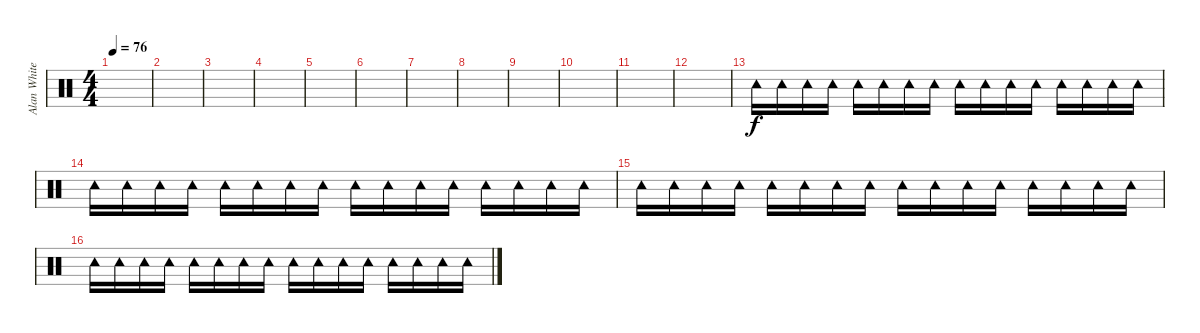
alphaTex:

\track ("Alan White" "Alan White") {instrument percussion}
\staff {score}
\articulation defaults
\ts (4 4)
\tempo 76
\clef neutral
\ks c
|
|
|
|
|
|
|
|
|
|
|
|
"Tambourine (hit)".16 "Tambourine (hit)".16 "Tambourine (hit)".16 "Tambourine (hit)".16 "Tambourine (hit)".16 "Tambourine (hit)".16 "Tambourine (hit)".16 "Tambourine (hit)".16 "Tambourine (hit)".16 "Tambourine (hit)".16 "Tambourine (hit)".16 "Tambourine (hit)".16 "Tambourine (hit)".16 "Tambourine (hit)".16 "Tambourine (hit)".16 "Tambourine (hit)".16 |
"Tambourine (hit)".16 "Tambourine (hit)".16 "Tambourine (hit)".16 "Tambourine (hit)".16 "Tambourine (hit)".16 "Tambourine (hit)".16 "Tambourine (hit)".16 "Tambourine (hit)".16 "Tambourine (hit)".16 "Tambourine (hit)".16 "Tambourine (hit)".16 "Tambourine (hit)".16 "Tambourine (hit)".16 "Tambourine (hit)".16 "Tambourine (hit)".16 "Tambourine (hit)".16 |
"Tambourine (hit)".16 "Tambourine (hit)".16 "Tambourine (hit)".16 "Tambourine (hit)".16 "Tambourine (hit)".16 "Tambourine (hit)".16 "Tambourine (hit)".16 "Tambourine (hit)".16 "Tambourine (hit)".16 "Tambourine (hit)".16 "Tambourine (hit)".16 "Tambourine (hit)".16 "Tambourine (hit)".16 "Tambourine (hit)".16 "Tambourine (hit)".16 "Tambourine (hit)".16 |
"Tambourine (hit)".16 "Tambourine (hit)".16 "Tambourine (hit)".16 "Tambourine (hit)".16 "Tambourine (hit)".16 "Tambourine (hit)".16 "Tambourine (hit)".16 "Tambourine (hit)".16 "Tambourine (hit)".16 "Tambourine (hit)".16 "Tambourine (hit)".16 "Tambourine (hit)".16 "Tambourine (hit)".16 "Tambourine (hit)".16 "Tambourine (hit)".16 "Tambourine (hit)".16
